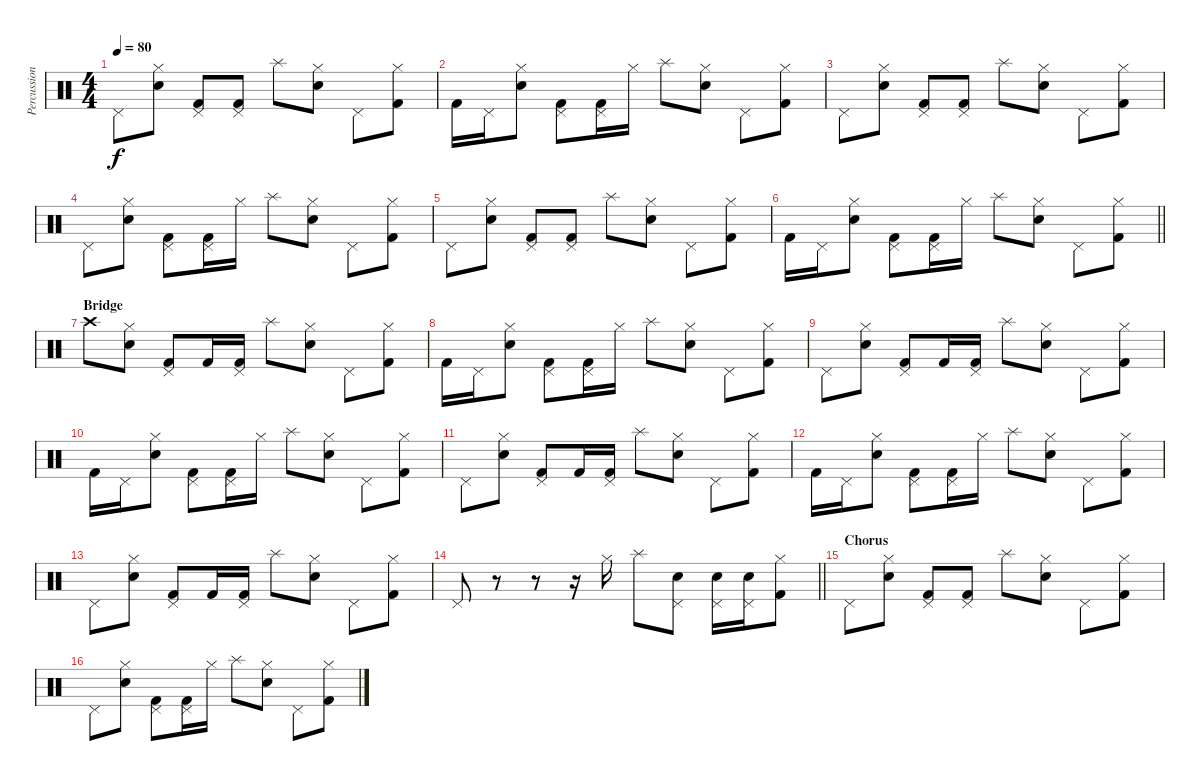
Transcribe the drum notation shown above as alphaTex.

\track ("Percussion" "Percussion") {instrument percussion}
\staff {score}
\articulation defaults
\ts (4 4)
\tempo 80
\clef neutral
\ks c "Pedal Hi-Hat (hit)".8{dy f}
("Hi-Hat (closed)" "Electric Snare (hit)").8 ("Pedal Hi-Hat (hit)" "Kick (hit) 2").8 ("Pedal Hi-Hat (hit)" "Kick (hit) 2").8 "Splash (hit)".8 ("Hi-Hat (closed)" "Electric Snare (hit)").8 "Pedal Hi-Hat (hit)".8 ("Hi-Hat (closed)" "Kick (hit) 2").8 |
"Kick (hit) 2".16 "Pedal Hi-Hat (hit)".16 ("Hi-Hat (closed)" "Electric Snare (hit)").8 ("Pedal Hi-Hat (hit)" "Kick (hit) 2").8 ("Pedal Hi-Hat (hit)" "Kick (hit) 2").16 "Hi-Hat (closed)".16 "Splash (hit)".8 ("Hi-Hat (closed)" "Electric Snare (hit)").8 "Pedal Hi-Hat (hit)".8 ("Hi-Hat (closed)" "Kick (hit) 2").8 |
"Pedal Hi-Hat (hit)".8 ("Hi-Hat (closed)" "Electric Snare (hit)").8 ("Pedal Hi-Hat (hit)" "Kick (hit) 2").8 ("Pedal Hi-Hat (hit)" "Kick (hit) 2").8 "Splash (hit)".8 ("Hi-Hat (closed)" "Electric Snare (hit)").8 "Pedal Hi-Hat (hit)".8 ("Hi-Hat (closed)" "Kick (hit) 2").8 |
"Pedal Hi-Hat (hit)".8 ("Hi-Hat (closed)" "Electric Snare (hit)").8 ("Pedal Hi-Hat (hit)" "Kick (hit) 2").8 ("Pedal Hi-Hat (hit)" "Kick (hit) 2").16 "Hi-Hat (closed)".16 "Splash (hit)".8 ("Hi-Hat (closed)" "Electric Snare (hit)").8 "Pedal Hi-Hat (hit)".8 ("Hi-Hat (closed)" "Kick (hit) 2").8 |
"Pedal Hi-Hat (hit)".8 ("Hi-Hat (closed)" "Electric Snare (hit)").8 ("Pedal Hi-Hat (hit)" "Kick (hit) 2").8 ("Pedal Hi-Hat (hit)" "Kick (hit) 2").8 "Splash (hit)".8 ("Hi-Hat (closed)" "Electric Snare (hit)").8 "Pedal Hi-Hat (hit)".8 ("Hi-Hat (closed)" "Kick (hit) 2").8 |
\barLineRight lightlight "Kick (hit) 2".16 "Pedal Hi-Hat (hit)".16
("Hi-Hat (closed)" "Electric Snare (hit)").8 ("Pedal Hi-Hat (hit)" "Kick (hit) 2").8 ("Pedal Hi-Hat (hit)" "Kick (hit) 2").16 "Hi-Hat (closed)".16 "Splash (hit)".8 ("Hi-Hat (closed)" "Electric Snare (hit)").8 "Pedal Hi-Hat (hit)".8 ("Hi-Hat (closed)" "Kick (hit) 2").8 |
\section ("" "Bridge")
"Crash high (hit)".8 ("Hi-Hat (closed)" "Electric Snare (hit)").8 ("Pedal Hi-Hat (hit)" "Kick (hit) 2").8 "Kick (hit) 2".16 ("Pedal Hi-Hat (hit)" "Kick (hit) 2").16 "Splash (hit)".8 ("Hi-Hat (closed)" "Electric Snare (hit)").8 "Pedal Hi-Hat (hit)".8 ("Hi-Hat (closed)" "Kick (hit) 2").8 |
"Kick (hit) 2".16 "Pedal Hi-Hat (hit)".16 ("Hi-Hat (closed)" "Electric Snare (hit)").8 ("Pedal Hi-Hat (hit)" "Kick (hit) 2").8 ("Pedal Hi-Hat (hit)" "Kick (hit) 2").16 "Hi-Hat (closed)".16 "Splash (hit)".8 ("Hi-Hat (closed)" "Electric Snare (hit)").8 "Pedal Hi-Hat (hit)".8 ("Hi-Hat (closed)" "Kick (hit) 2").8 |
"Pedal Hi-Hat (hit)".8 ("Hi-Hat (closed)" "Electric Snare (hit)").8 ("Pedal Hi-Hat (hit)" "Kick (hit) 2").8 "Kick (hit) 2".16 ("Pedal Hi-Hat (hit)" "Kick (hit) 2").16 "Splash (hit)".8 ("Hi-Hat (closed)" "Electric Snare (hit)").8 "Pedal Hi-Hat (hit)".8 ("Hi-Hat (closed)" "Kick (hit) 2").8 |
"Kick (hit) 2".16 "Pedal Hi-Hat (hit)".16 ("Hi-Hat (closed)" "Electric Snare (hit)").8 ("Pedal Hi-Hat (hit)" "Kick (hit) 2").8 ("Pedal Hi-Hat (hit)" "Kick (hit) 2").16 "Hi-Hat (closed)".16 "Splash (hit)".8 ("Hi-Hat (closed)" "Electric Snare (hit)").8 "Pedal Hi-Hat (hit)".8 ("Hi-Hat (closed)" "Kick (hit) 2").8 |
"Pedal Hi-Hat (hit)".8 ("Hi-Hat (closed)" "Electric Snare (hit)").8 ("Pedal Hi-Hat (hit)" "Kick (hit) 2").8 "Kick (hit) 2".16 ("Pedal Hi-Hat (hit)" "Kick (hit) 2").16 "Splash (hit)".8 ("Hi-Hat (closed)" "Electric Snare (hit)").8 "Pedal Hi-Hat (hit)".8 ("Hi-Hat (closed)" "Kick (hit) 2").8 |
"Kick (hit) 2".16 "Pedal Hi-Hat (hit)".16 ("Hi-Hat (closed)" "Electric Snare (hit)").8 ("Pedal Hi-Hat (hit)" "Kick (hit) 2").8 ("Pedal Hi-Hat (hit)" "Kick (hit) 2").16 "Hi-Hat (closed)".16 "Splash (hit)".8 ("Hi-Hat (closed)" "Electric Snare (hit)").8 "Pedal Hi-Hat (hit)".8 ("Hi-Hat (closed)" "Kick (hit) 2").8 |
"Pedal Hi-Hat (hit)".8 ("Hi-Hat (closed)" "Electric Snare (hit)").8 ("Pedal Hi-Hat (hit)" "Kick (hit) 2").8 "Kick (hit) 2".16 ("Pedal Hi-Hat (hit)" "Kick (hit) 2").16 "Splash (hit)".8 ("Hi-Hat (closed)" "Electric Snare (hit)").8 "Pedal Hi-Hat (hit)".8 ("Hi-Hat (closed)" "Kick (hit) 2").8 |
\barLineRight lightlight "Pedal Hi-Hat (hit)".8
r.8 r.8 r.16 "Hi-Hat (closed)".16 "Splash (hit)".8 ("Pedal Hi-Hat (hit)" "Electric Snare (hit)").8 ("Pedal Hi-Hat (hit)" "Electric Snare (hit)").16 ("Pedal Hi-Hat (hit)" "Electric Snare (hit)").16 ("Hi-Hat (closed)" "Kick (hit) 2").8 |
\section ("" "Chorus")
"Pedal Hi-Hat (hit)".8 ("Hi-Hat (closed)" "Electric Snare (hit)").8 ("Pedal Hi-Hat (hit)" "Kick (hit) 2").8 ("Pedal Hi-Hat (hit)" "Kick (hit) 2").8 "Splash (hit)".8 ("Hi-Hat (closed)" "Electric Snare (hit)").8 "Pedal Hi-Hat (hit)".8 ("Hi-Hat (closed)" "Kick (hit) 2").8 |
"Pedal Hi-Hat (hit)".8 ("Hi-Hat (closed)" "Electric Snare (hit)").8 ("Pedal Hi-Hat (hit)" "Kick (hit) 2").8 ("Pedal Hi-Hat (hit)" "Kick (hit) 2").16 "Hi-Hat (closed)".16 "Splash (hit)".8 ("Hi-Hat (closed)" "Electric Snare (hit)").8 "Pedal Hi-Hat (hit)".8 ("Hi-Hat (closed)" "Kick (hit) 2").8
